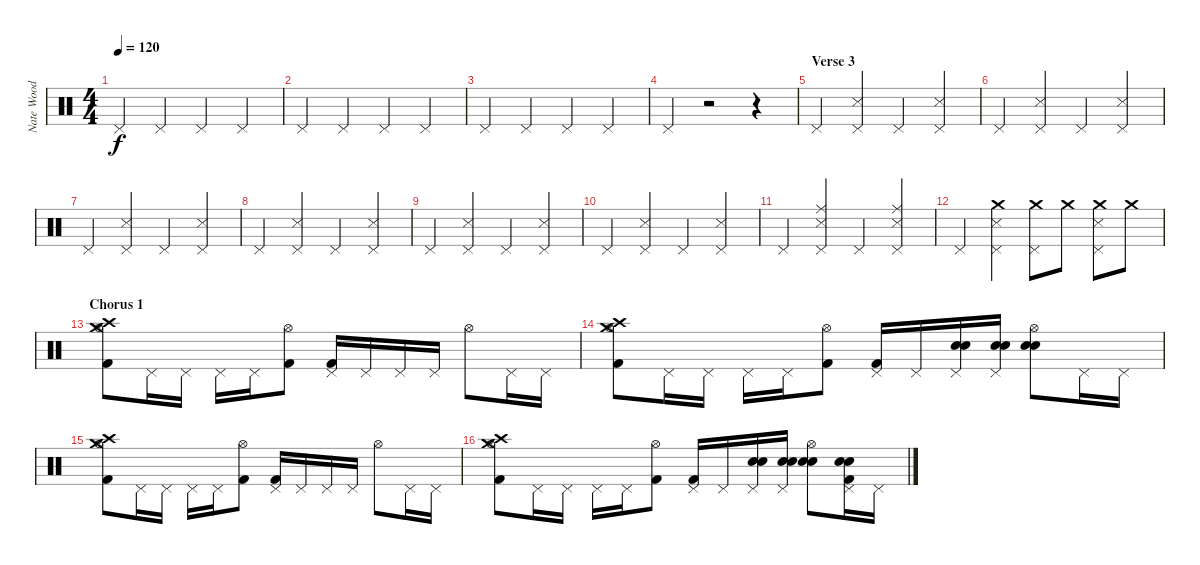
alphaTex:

\track ("Nate Wood  (Drums)" "Nate Wood ") {instrument percussion}
\staff {score}
\articulation defaults
\ts (4 4)
\tempo 120
\clef neutral
\ks c "Pedal Hi-Hat (hit)".4{dy f} "Pedal Hi-Hat (hit)".4 "Pedal Hi-Hat (hit)".4 "Pedal Hi-Hat (hit)".4
|
"Pedal Hi-Hat (hit)".4 "Pedal Hi-Hat (hit)".4 "Pedal Hi-Hat (hit)".4 "Pedal Hi-Hat (hit)".4 |
"Pedal Hi-Hat (hit)".4 "Pedal Hi-Hat (hit)".4 "Pedal Hi-Hat (hit)".4 "Pedal Hi-Hat (hit)".4 |
"Pedal Hi-Hat (hit)".4 r.2 r.4 |
\section ("" "Verse 3")
"Pedal Hi-Hat (hit)".4 ("Pedal Hi-Hat (hit)" "Snare (side stick) 3").4 "Pedal Hi-Hat (hit)".4 ("Pedal Hi-Hat (hit)" "Snare (side stick) 3").4 |
"Pedal Hi-Hat (hit)".4 ("Pedal Hi-Hat (hit)" "Snare (side stick) 3").4 "Pedal Hi-Hat (hit)".4 ("Pedal Hi-Hat (hit)" "Snare (side stick) 3").4 |
"Pedal Hi-Hat (hit)".4 ("Pedal Hi-Hat (hit)" "Snare (side stick) 3").4 "Pedal Hi-Hat (hit)".4 ("Pedal Hi-Hat (hit)" "Snare (side stick) 3").4 |
"Pedal Hi-Hat (hit)".4 ("Pedal Hi-Hat (hit)" "Snare (side stick) 3").4 "Pedal Hi-Hat (hit)".4 ("Pedal Hi-Hat (hit)" "Snare (side stick) 3").4 |
"Pedal Hi-Hat (hit)".4 ("Pedal Hi-Hat (hit)" "Snare (side stick) 3").4 "Pedal Hi-Hat (hit)".4 ("Pedal Hi-Hat (hit)" "Snare (side stick) 3").4 |
"Pedal Hi-Hat (hit)".4 ("Pedal Hi-Hat (hit)" "Snare (side stick) 3").4 "Pedal Hi-Hat (hit)".4 ("Pedal Hi-Hat (hit)" "Snare (side stick) 3").4 |
"Pedal Hi-Hat (hit)".4 ("Pedal Hi-Hat (hit)" "Snare (side stick) 3" "Ride (middle)").4 "Pedal Hi-Hat (hit)".4 ("Pedal Hi-Hat (hit)" "Snare (side stick) 3" "Ride (middle)").4 |
"Pedal Hi-Hat (hit)".4 ("Pedal Hi-Hat (hit)" "Snare (side stick) 3" "Crash medium (hit)").4 ("Pedal Hi-Hat (hit)" "Crash medium (hit)").8 "Crash medium (hit)".8 ("Pedal Hi-Hat (hit)" "Snare (side stick) 3" "Crash medium (hit)").8 "Crash medium (hit)".8 |
\section ("" "Chorus 1")
("Kick (hit) 2" "Hi-Hat (open)" "Crash medium (hit)" "Crash high (hit)").8 "Pedal Hi-Hat (hit)".16 "Pedal Hi-Hat (hit)".16 "Pedal Hi-Hat (hit)".16 "Pedal Hi-Hat (hit)".16 ("Kick (hit) 2" "Hi-Hat (open)").8 ("Kick (hit) 2" "Pedal Hi-Hat (hit)").16 "Pedal Hi-Hat (hit)".16 "Pedal Hi-Hat (hit)".16 "Pedal Hi-Hat (hit)".16 "Hi-Hat (open)".8 "Pedal Hi-Hat (hit)".16 "Pedal Hi-Hat (hit)".16 |
("Kick (hit) 2" "Hi-Hat (open)" "Crash medium (hit)" "Crash high (hit)").8 "Pedal Hi-Hat (hit)".16 "Pedal Hi-Hat (hit)".16 "Pedal Hi-Hat (hit)".16 "Pedal Hi-Hat (hit)".16 ("Kick (hit) 2" "Hi-Hat (open)").8 ("Kick (hit) 2" "Pedal Hi-Hat (hit)").16 "Pedal Hi-Hat (hit)".16 ("Snare (hit) 2" "Pedal Hi-Hat (hit)" "Electric Snare (hit)").16 ("Snare (hit) 2" "Pedal Hi-Hat (hit)" "Electric Snare (hit)").16 ("Snare (hit) 2" "Hi-Hat (open)" "Electric Snare (hit)").8 "Pedal Hi-Hat (hit)".16 "Pedal Hi-Hat (hit)".16 |
("Kick (hit) 2" "Hi-Hat (open)" "Crash medium (hit)" "Crash high (hit)").8 "Pedal Hi-Hat (hit)".16 "Pedal Hi-Hat (hit)".16 "Pedal Hi-Hat (hit)".16 "Pedal Hi-Hat (hit)".16 ("Kick (hit) 2" "Hi-Hat (open)").8 ("Kick (hit) 2" "Pedal Hi-Hat (hit)").16 "Pedal Hi-Hat (hit)".16 "Pedal Hi-Hat (hit)".16 "Pedal Hi-Hat (hit)".16 "Hi-Hat (open)".8 "Pedal Hi-Hat (hit)".16 "Pedal Hi-Hat (hit)".16 |
("Kick (hit) 2" "Hi-Hat (open)" "Crash medium (hit)" "Crash high (hit)").8 "Pedal Hi-Hat (hit)".16 "Pedal Hi-Hat (hit)".16 "Pedal Hi-Hat (hit)".16 "Pedal Hi-Hat (hit)".16 ("Kick (hit) 2" "Hi-Hat (open)").8 ("Kick (hit) 2" "Pedal Hi-Hat (hit)").16 "Pedal Hi-Hat (hit)".16 ("Snare (hit) 2" "Pedal Hi-Hat (hit)" "Electric Snare (hit)").16 ("Snare (hit) 2" "Pedal Hi-Hat (hit)" "Electric Snare (hit)").16 ("Snare (hit) 2" "Hi-Hat (open)" "Electric Snare (hit)").8 ("Kick (hit) 2" "Snare (hit) 2" "Pedal Hi-Hat (hit)" "Electric Snare (hit)").16 "Pedal Hi-Hat (hit)".16
